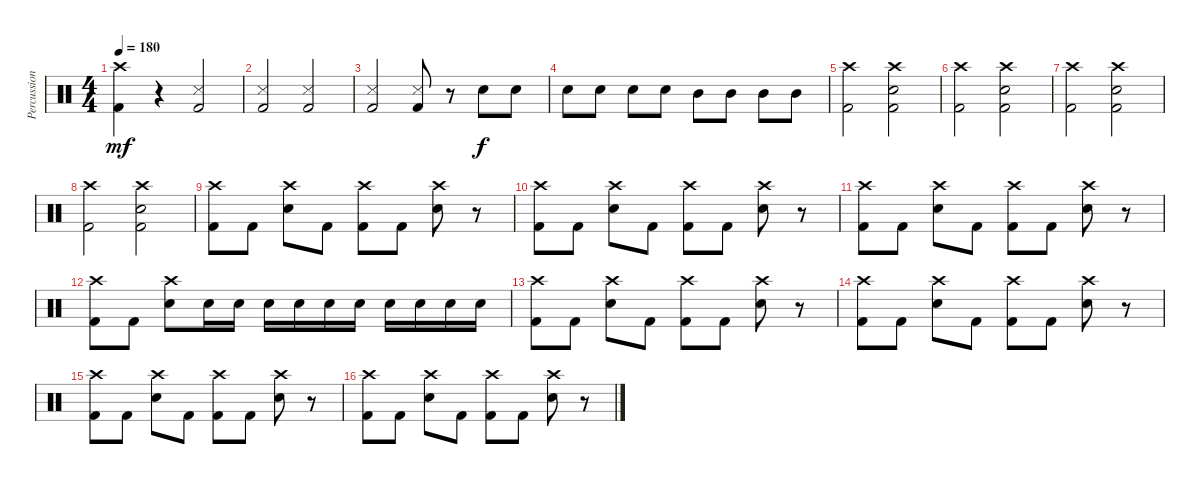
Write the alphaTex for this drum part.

\track ("Percussion" "Percussion") {instrument percussion}
\staff {score}
\articulation defaults
\ts (4 4)
\tempo 180
\clef neutral
\ks c
("Crash high (hit)" "Kick (hit) 2").4{dy mf} r.4 ("Kick (hit) 2" "Metronome (hit)").2 |
("Kick (hit) 2" "Metronome (hit)").2 ("Kick (hit) 2" "Metronome (hit)").2 |
("Kick (hit) 2" "Metronome (hit)").2 ("Kick (hit) 2" "Metronome (hit)").8 r.8 "Electric Snare (hit)".8{dy f} "Electric Snare (hit)".8 |
"Electric Snare (hit)".8 "Electric Snare (hit)".8 "Electric Snare (hit)".8 "Electric Snare (hit)".8 "Mid Tom (hit)".8 "Mid Tom (hit)".8 "Mid Tom (hit)".8 "Mid Tom (hit)".8 |
("Crash high (hit)" "Kick (hit) 2").2 ("Crash high (hit)" "Electric Snare (hit)" "Kick (hit) 2").2 |
("Crash high (hit)" "Kick (hit) 2").2 ("Crash high (hit)" "Electric Snare (hit)" "Kick (hit) 2").2 |
("Crash high (hit)" "Kick (hit) 2").2 ("Crash high (hit)" "Electric Snare (hit)" "Kick (hit) 2").2 |
("Crash high (hit)" "Kick (hit) 2").2 ("Crash high (hit)" "Electric Snare (hit)" "Kick (hit) 2").2 |
("Crash high (hit)" "Kick (hit) 2").8 "Kick (hit) 2".8 ("Crash high (hit)" "Electric Snare (hit)").8 "Kick (hit) 2".8 ("Crash high (hit)" "Kick (hit) 2").8 "Kick (hit) 2".8 ("Crash high (hit)" "Electric Snare (hit)").8 r.8 |
("Crash high (hit)" "Kick (hit) 2").8 "Kick (hit) 2".8 ("Crash high (hit)" "Electric Snare (hit)").8 "Kick (hit) 2".8 ("Crash high (hit)" "Kick (hit) 2").8 "Kick (hit) 2".8 ("Crash high (hit)" "Electric Snare (hit)").8 r.8 |
("Crash high (hit)" "Kick (hit) 2").8 "Kick (hit) 2".8 ("Crash high (hit)" "Electric Snare (hit)").8 "Kick (hit) 2".8 ("Crash high (hit)" "Kick (hit) 2").8 "Kick (hit) 2".8 ("Crash high (hit)" "Electric Snare (hit)").8 r.8 |
("Crash high (hit)" "Kick (hit) 2").8 "Kick (hit) 2".8 ("Crash high (hit)" "Electric Snare (hit)").8 "Electric Snare (hit)".16 "Electric Snare (hit)".16 "Electric Snare (hit)".16 "Electric Snare (hit)".16 "Electric Snare (hit)".16 "Electric Snare (hit)".16 "Electric Snare (hit)".16 "Electric Snare (hit)".16 "Electric Snare (hit)".16 "Electric Snare (hit)".16 |
("Crash high (hit)" "Kick (hit) 2").8 "Kick (hit) 2".8 ("Crash high (hit)" "Electric Snare (hit)").8 "Kick (hit) 2".8 ("Crash high (hit)" "Kick (hit) 2").8 "Kick (hit) 2".8 ("Crash high (hit)" "Electric Snare (hit)").8 r.8 |
("Crash high (hit)" "Kick (hit) 2").8 "Kick (hit) 2".8 ("Crash high (hit)" "Electric Snare (hit)").8 "Kick (hit) 2".8 ("Crash high (hit)" "Kick (hit) 2").8 "Kick (hit) 2".8 ("Crash high (hit)" "Electric Snare (hit)").8 r.8 |
("Crash high (hit)" "Kick (hit) 2").8 "Kick (hit) 2".8 ("Crash high (hit)" "Electric Snare (hit)").8 "Kick (hit) 2".8 ("Crash high (hit)" "Kick (hit) 2").8 "Kick (hit) 2".8 ("Crash high (hit)" "Electric Snare (hit)").8 r.8 |
("Crash high (hit)" "Kick (hit) 2").8 "Kick (hit) 2".8 ("Crash high (hit)" "Electric Snare (hit)").8 "Kick (hit) 2".8 ("Crash high (hit)" "Kick (hit) 2").8 "Kick (hit) 2".8 ("Crash high (hit)" "Electric Snare (hit)").8 r.8
